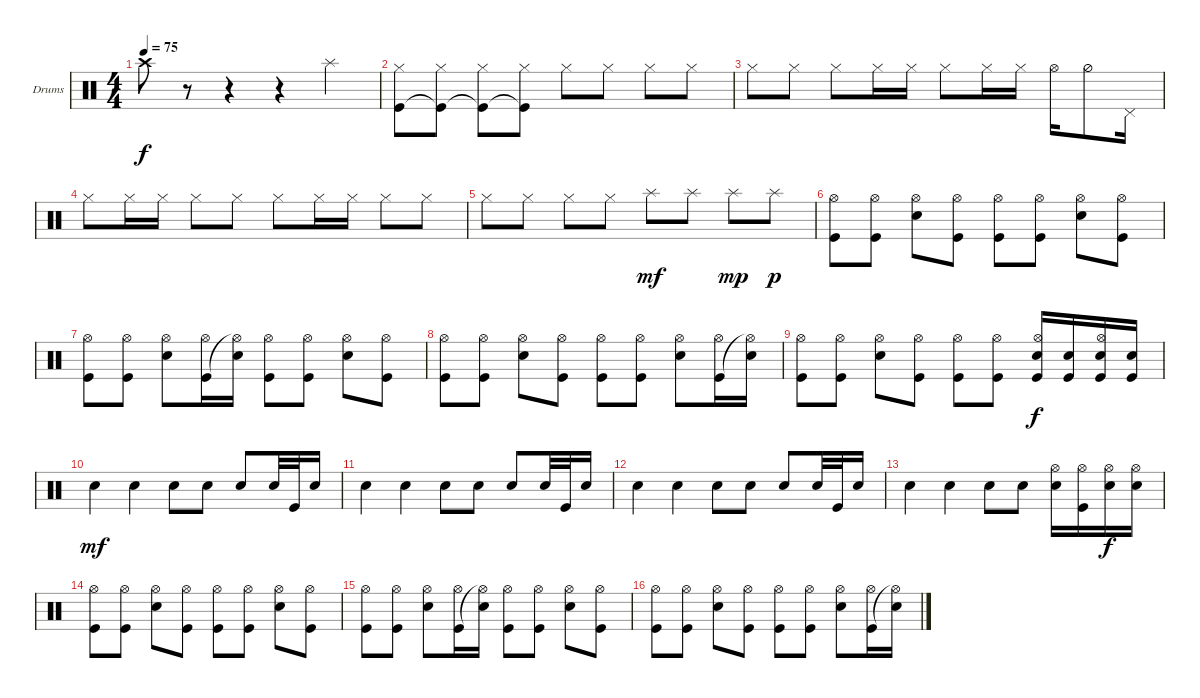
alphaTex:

\defaultSystemsLayout 4
\bracketExtendMode groupsimilarinstruments
\firstSystemTrackNameOrientation horizontal
\otherSystemsTrackNameOrientation horizontal
\track ("Drumkit" "Drums") {solo instrument percussion}
\staff {score}
\articulation defaults
\ts (4 4)
\tempo 75
\clef neutral
\ks c "Crash high (hit)".8{dy f}
r.8 r.4 r.4 "Splash (hit)".4 |
("Hi-Hat (closed)" "Kick (hit)").8 ("Hi-Hat (closed)" "Kick (hit)"{t}).8 ("Hi-Hat (closed)" "Kick (hit)"{t}).8 ("Hi-Hat (closed)" "Kick (hit)"{t}).8 "Hi-Hat (closed)".8 "Hi-Hat (closed)".8 "Hi-Hat (closed)".8 "Hi-Hat (closed)".8 |
"Hi-Hat (closed)".8 "Hi-Hat (closed)".8 "Hi-Hat (closed)".8 "Hi-Hat (closed)".16 "Hi-Hat (closed)".16 "Hi-Hat (closed)".8 "Hi-Hat (closed)".16 "Hi-Hat (closed)".16 "Hi-Hat (open)".16 "Hi-Hat (half)".8 "Pedal Hi-Hat (hit)".16 |
"Hi-Hat (closed)".8 "Hi-Hat (closed)".16 "Hi-Hat (closed)".16 "Hi-Hat (closed)".8 "Hi-Hat (closed)".8 "Hi-Hat (closed)".8 "Hi-Hat (closed)".16 "Hi-Hat (closed)".16 "Hi-Hat (closed)".8 "Hi-Hat (closed)".8 |
"Hi-Hat (closed)".8 "Hi-Hat (closed)".8 "Hi-Hat (closed)".8 "Hi-Hat (closed)".8 "Splash (hit)".8{dy mf} "Splash (hit)".8 "Splash (hit)".8{dy mp} "Splash (hit)".8{dy p} |
("Hi-Hat (open)" "Kick (hit)").8 ("Hi-Hat (open)" "Kick (hit)").8 ("Hi-Hat (open)" "Snare (hit) 2").8 ("Hi-Hat (open)" "Kick (hit)").8 ("Hi-Hat (open)" "Kick (hit)").8 ("Hi-Hat (open)" "Kick (hit)").8 ("Hi-Hat (open)" "Snare (hit) 2").8 ("Hi-Hat (open)" "Kick (hit)").8 |
("Hi-Hat (open)" "Kick (hit)").8 ("Hi-Hat (open)" "Kick (hit)").8 ("Hi-Hat (open)" "Snare (hit) 2").8 ("Kick (hit)" "Hi-Hat (open)").16 ("Hi-Hat (open)"{t} "Snare (hit) 2").16 ("Hi-Hat (open)" "Kick (hit)").8 ("Hi-Hat (open)" "Kick (hit)").8 ("Hi-Hat (open)" "Snare (hit) 2").8 ("Kick (hit)" "Hi-Hat (open)").8 |
("Hi-Hat (open)" "Kick (hit)").8 ("Hi-Hat (open)" "Kick (hit)").8 ("Hi-Hat (open)" "Snare (hit) 2").8 ("Hi-Hat (open)" "Kick (hit)").8 ("Hi-Hat (open)" "Kick (hit)").8 ("Hi-Hat (open)" "Kick (hit)").8 ("Hi-Hat (open)" "Snare (hit) 2").8 ("Hi-Hat (open)" "Kick (hit)").16 ("Snare (hit) 2" "Hi-Hat (open)"{t}).16 |
("Hi-Hat (open)" "Kick (hit)").8 ("Hi-Hat (open)" "Kick (hit)").8 ("Hi-Hat (open)" "Snare (hit) 2").8 ("Hi-Hat (open)" "Kick (hit)").8 ("Hi-Hat (open)" "Kick (hit)").8 ("Hi-Hat (open)" "Kick (hit)").8 ("Hi-Hat (open)" "Snare (hit) 2" "Kick (hit)").16{dy f} ("Kick (hit)" "Snare (hit) 2").16 ("Snare (hit) 2" "Kick (hit)" "Hi-Hat (open)").16 ("Snare (hit) 2" "Kick (hit)").16 |
"Snare (hit) 2".4{dy mf} "Snare (hit) 2".4 "Snare (hit) 2".8 "Snare (hit) 2".8 "Snare (hit) 2".8 "Snare (hit) 2".32 "Kick (hit)".32 "Snare (hit) 2".16 |
"Snare (hit) 2".4 "Snare (hit) 2".4 "Snare (hit) 2".8 "Snare (hit) 2".8 "Snare (hit) 2".8 "Snare (hit) 2".32 "Kick (hit)".32 "Snare (hit) 2".16 |
"Snare (hit) 2".4 "Snare (hit) 2".4 "Snare (hit) 2".8 "Snare (hit) 2".8 "Snare (hit) 2".8 "Snare (hit) 2".32 "Kick (hit)".32 "Snare (hit) 2".16 |
"Snare (hit) 2".4 "Snare (hit) 2".4 "Snare (hit) 2".8 "Snare (hit) 2".8 ("Snare (hit) 2" "Hi-Hat (open)").16 ("Kick (hit)" "Hi-Hat (open)").16 ("Snare (hit) 2" "Hi-Hat (open)").16{dy f} ("Snare (hit) 2" "Hi-Hat (open)").16 |
("Hi-Hat (open)" "Kick (hit)").8 ("Hi-Hat (open)" "Kick (hit)").8 ("Hi-Hat (open)" "Snare (hit) 2").8 ("Hi-Hat (open)" "Kick (hit)").8 ("Hi-Hat (open)" "Kick (hit)").8 ("Hi-Hat (open)" "Kick (hit)").8 ("Hi-Hat (open)" "Snare (hit) 2").8 ("Hi-Hat (open)" "Kick (hit)").8 |
("Hi-Hat (open)" "Kick (hit)").8 ("Hi-Hat (open)" "Kick (hit)").8 ("Hi-Hat (open)" "Snare (hit) 2").8 ("Kick (hit)" "Hi-Hat (open)").16 ("Hi-Hat (open)"{t} "Snare (hit) 2").16 ("Hi-Hat (open)" "Kick (hit)").8 ("Hi-Hat (open)" "Kick (hit)").8 ("Hi-Hat (open)" "Snare (hit) 2").8 ("Kick (hit)" "Hi-Hat (open)").8 |
("Hi-Hat (open)" "Kick (hit)").8 ("Hi-Hat (open)" "Kick (hit)").8 ("Hi-Hat (open)" "Snare (hit) 2").8 ("Hi-Hat (open)" "Kick (hit)").8 ("Hi-Hat (open)" "Kick (hit)").8 ("Hi-Hat (open)" "Kick (hit)").8 ("Hi-Hat (open)" "Snare (hit) 2").8 ("Hi-Hat (open)" "Kick (hit)").16 ("Snare (hit) 2" "Hi-Hat (open)"{t}).16
